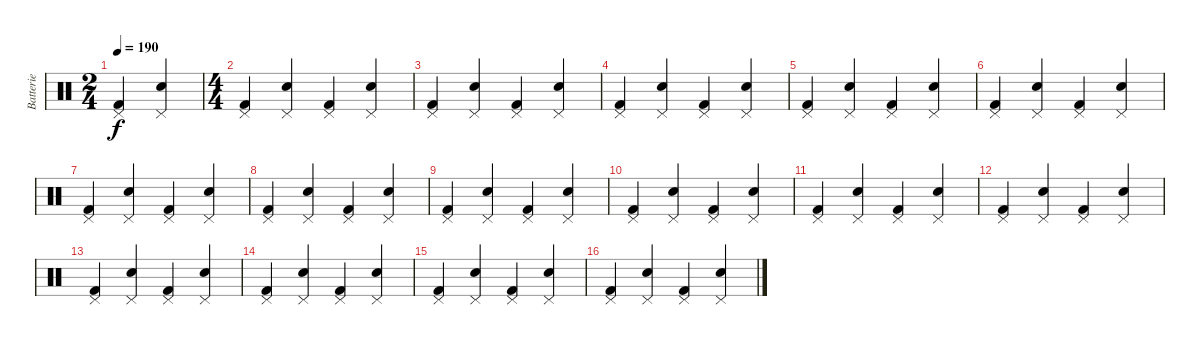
\track ("Batterie" "Batterie") {instrument percussion}
\staff {score}
\articulation defaults
\ts (2 4)
\tempo 190
\clef neutral
\ks c
("Pedal Hi-Hat (hit)" "Kick (hit) 2").4{dy f} ("Pedal Hi-Hat (hit)" "Snare (hit) 2").4 |
\ts (4 4)
("Pedal Hi-Hat (hit)" "Kick (hit) 2").4 ("Pedal Hi-Hat (hit)" "Snare (hit) 2").4 ("Pedal Hi-Hat (hit)" "Kick (hit) 2").4 ("Pedal Hi-Hat (hit)" "Snare (hit) 2").4 |
("Pedal Hi-Hat (hit)" "Kick (hit) 2").4 ("Pedal Hi-Hat (hit)" "Snare (hit) 2").4 ("Pedal Hi-Hat (hit)" "Kick (hit) 2").4 ("Pedal Hi-Hat (hit)" "Snare (hit) 2").4 |
("Pedal Hi-Hat (hit)" "Kick (hit) 2").4 ("Pedal Hi-Hat (hit)" "Snare (hit) 2").4 ("Pedal Hi-Hat (hit)" "Kick (hit) 2").4 ("Pedal Hi-Hat (hit)" "Snare (hit) 2").4 |
("Pedal Hi-Hat (hit)" "Kick (hit) 2").4 ("Pedal Hi-Hat (hit)" "Snare (hit) 2").4 ("Pedal Hi-Hat (hit)" "Kick (hit) 2").4 ("Pedal Hi-Hat (hit)" "Snare (hit) 2").4 |
("Pedal Hi-Hat (hit)" "Kick (hit) 2").4 ("Pedal Hi-Hat (hit)" "Snare (hit) 2").4 ("Pedal Hi-Hat (hit)" "Kick (hit) 2").4 ("Pedal Hi-Hat (hit)" "Snare (hit) 2").4 |
("Pedal Hi-Hat (hit)" "Kick (hit) 2").4 ("Pedal Hi-Hat (hit)" "Snare (hit) 2").4 ("Pedal Hi-Hat (hit)" "Kick (hit) 2").4 ("Pedal Hi-Hat (hit)" "Snare (hit) 2").4 |
("Pedal Hi-Hat (hit)" "Kick (hit) 2").4 ("Pedal Hi-Hat (hit)" "Snare (hit) 2").4 ("Pedal Hi-Hat (hit)" "Kick (hit) 2").4 ("Pedal Hi-Hat (hit)" "Snare (hit) 2").4 |
("Pedal Hi-Hat (hit)" "Kick (hit) 2").4 ("Pedal Hi-Hat (hit)" "Snare (hit) 2").4 ("Pedal Hi-Hat (hit)" "Kick (hit) 2").4 ("Pedal Hi-Hat (hit)" "Snare (hit) 2").4 |
("Pedal Hi-Hat (hit)" "Kick (hit) 2").4 ("Pedal Hi-Hat (hit)" "Snare (hit) 2").4 ("Pedal Hi-Hat (hit)" "Kick (hit) 2").4 ("Pedal Hi-Hat (hit)" "Snare (hit) 2").4 |
("Pedal Hi-Hat (hit)" "Kick (hit) 2").4 ("Pedal Hi-Hat (hit)" "Snare (hit) 2").4 ("Pedal Hi-Hat (hit)" "Kick (hit) 2").4 ("Pedal Hi-Hat (hit)" "Snare (hit) 2").4 |
("Pedal Hi-Hat (hit)" "Kick (hit) 2").4 ("Pedal Hi-Hat (hit)" "Snare (hit) 2").4 ("Pedal Hi-Hat (hit)" "Kick (hit) 2").4 ("Pedal Hi-Hat (hit)" "Snare (hit) 2").4 |
("Pedal Hi-Hat (hit)" "Kick (hit) 2").4 ("Pedal Hi-Hat (hit)" "Snare (hit) 2").4 ("Pedal Hi-Hat (hit)" "Kick (hit) 2").4 ("Pedal Hi-Hat (hit)" "Snare (hit) 2").4 |
("Pedal Hi-Hat (hit)" "Kick (hit) 2").4 ("Pedal Hi-Hat (hit)" "Snare (hit) 2").4 ("Pedal Hi-Hat (hit)" "Kick (hit) 2").4 ("Pedal Hi-Hat (hit)" "Snare (hit) 2").4 |
("Pedal Hi-Hat (hit)" "Kick (hit) 2").4 ("Pedal Hi-Hat (hit)" "Snare (hit) 2").4 ("Pedal Hi-Hat (hit)" "Kick (hit) 2").4 ("Pedal Hi-Hat (hit)" "Snare (hit) 2").4 |
("Pedal Hi-Hat (hit)" "Kick (hit) 2").4 ("Pedal Hi-Hat (hit)" "Snare (hit) 2").4 ("Pedal Hi-Hat (hit)" "Kick (hit) 2").4 ("Pedal Hi-Hat (hit)" "Snare (hit) 2").4
